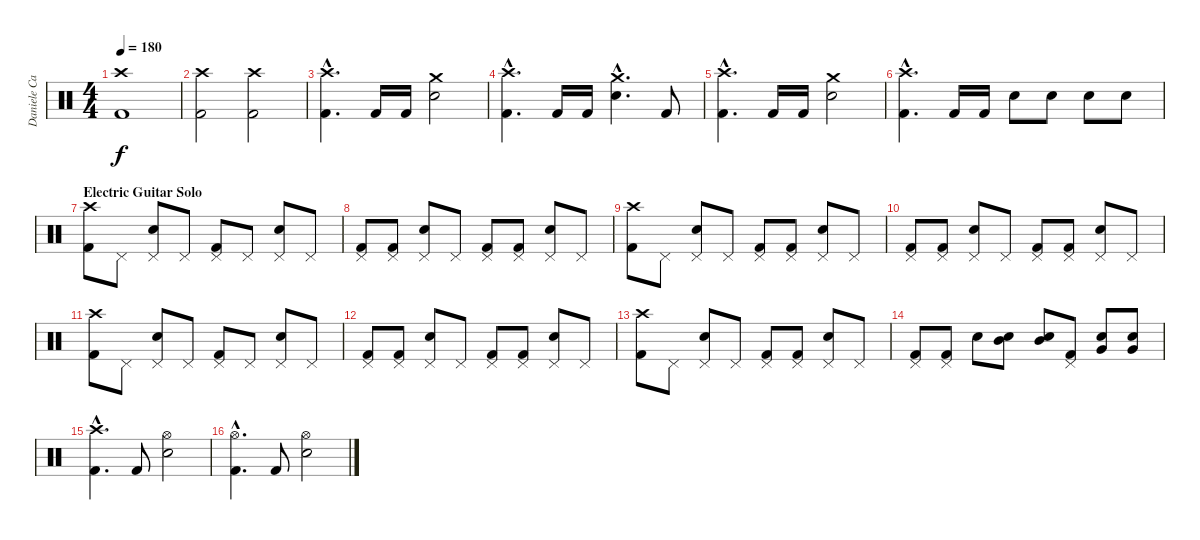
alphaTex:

\track ("Daniele Carbonera " "Daniele Ca") {instrument percussion}
\staff {score}
\articulation defaults
\ts (4 4)
\tempo 180
\clef neutral
\ks c
("Crash high (hit)" "Kick (hit) 2").1{dy f} |
("Crash high (hit)" "Kick (hit) 2").2 ("Crash high (hit)" "Kick (hit) 2").2 |
("Crash high (hit)"{hac} "Kick (hit) 2"{hac}).4{d} "Kick (hit) 2".16 "Kick (hit) 2".16 ("Crash medium (hit)" "Electric Snare (hit)").2 |
("Crash high (hit)"{hac} "Kick (hit) 2"{hac}).4{d} "Kick (hit) 2".16 "Kick (hit) 2".16 ("Crash medium (hit)"{hac} "Electric Snare (hit)"{hac}).4{d} "Kick (hit) 2".8 |
("Crash high (hit)"{hac} "Kick (hit) 2"{hac}).4{d} "Kick (hit) 2".16 "Kick (hit) 2".16 ("Crash medium (hit)" "Electric Snare (hit)").2 |
("Crash high (hit)"{hac} "Kick (hit) 2"{hac}).4{d} "Kick (hit) 2".16 "Kick (hit) 2".16 "Electric Snare (hit)".8 "Electric Snare (hit)".8 "Electric Snare (hit)".8 "Electric Snare (hit)".8 |
\section ("" "Electric Guitar Solo")
("Crash high (hit)" "Kick (hit) 2").8 "Pedal Hi-Hat (hit)".8 ("Pedal Hi-Hat (hit)" "Electric Snare (hit)").8 "Pedal Hi-Hat (hit)".8 ("Pedal Hi-Hat (hit)" "Kick (hit) 2").8 "Pedal Hi-Hat (hit)".8 ("Pedal Hi-Hat (hit)" "Electric Snare (hit)").8 "Pedal Hi-Hat (hit)".8 |
("Pedal Hi-Hat (hit)" "Kick (hit) 2").8 ("Pedal Hi-Hat (hit)" "Kick (hit) 2").8 ("Pedal Hi-Hat (hit)" "Electric Snare (hit)").8 "Pedal Hi-Hat (hit)".8 ("Pedal Hi-Hat (hit)" "Kick (hit) 2").8 ("Pedal Hi-Hat (hit)" "Kick (hit) 2").8 ("Pedal Hi-Hat (hit)" "Electric Snare (hit)").8 "Pedal Hi-Hat (hit)".8 |
("Crash high (hit)" "Kick (hit) 2").8 "Pedal Hi-Hat (hit)".8 ("Pedal Hi-Hat (hit)" "Electric Snare (hit)").8 "Pedal Hi-Hat (hit)".8 ("Pedal Hi-Hat (hit)" "Kick (hit) 2").8 ("Pedal Hi-Hat (hit)" "Kick (hit) 2").8 ("Pedal Hi-Hat (hit)" "Electric Snare (hit)").8 "Pedal Hi-Hat (hit)".8 |
("Pedal Hi-Hat (hit)" "Kick (hit) 2").8 ("Pedal Hi-Hat (hit)" "Kick (hit) 2").8 ("Pedal Hi-Hat (hit)" "Electric Snare (hit)").8 "Pedal Hi-Hat (hit)".8 ("Pedal Hi-Hat (hit)" "Kick (hit) 2").8 ("Pedal Hi-Hat (hit)" "Kick (hit) 2").8 ("Pedal Hi-Hat (hit)" "Electric Snare (hit)").8 "Pedal Hi-Hat (hit)".8 |
("Crash high (hit)" "Kick (hit) 2").8 "Pedal Hi-Hat (hit)".8 ("Pedal Hi-Hat (hit)" "Electric Snare (hit)").8 "Pedal Hi-Hat (hit)".8 ("Pedal Hi-Hat (hit)" "Kick (hit) 2").8 "Pedal Hi-Hat (hit)".8 ("Pedal Hi-Hat (hit)" "Electric Snare (hit)").8 "Pedal Hi-Hat (hit)".8 |
("Pedal Hi-Hat (hit)" "Kick (hit) 2").8 ("Pedal Hi-Hat (hit)" "Kick (hit) 2").8 ("Pedal Hi-Hat (hit)" "Electric Snare (hit)").8 "Pedal Hi-Hat (hit)".8 ("Pedal Hi-Hat (hit)" "Kick (hit) 2").8 ("Pedal Hi-Hat (hit)" "Kick (hit) 2").8 ("Pedal Hi-Hat (hit)" "Electric Snare (hit)").8 "Pedal Hi-Hat (hit)".8 |
("Crash high (hit)" "Kick (hit) 2").8 "Pedal Hi-Hat (hit)".8 ("Pedal Hi-Hat (hit)" "Electric Snare (hit)").8 "Pedal Hi-Hat (hit)".8 ("Pedal Hi-Hat (hit)" "Kick (hit) 2").8 ("Pedal Hi-Hat (hit)" "Kick (hit) 2").8 ("Pedal Hi-Hat (hit)" "Electric Snare (hit)").8 "Pedal Hi-Hat (hit)".8 |
("Pedal Hi-Hat (hit)" "Kick (hit) 2").8 ("Pedal Hi-Hat (hit)" "Kick (hit) 2").8 "Electric Snare (hit)".8 ("Mid Tom (hit)" "Electric Snare (hit)").8 ("Mid Tom (hit)" "Electric Snare (hit)").8 ("Pedal Hi-Hat (hit)" "Kick (hit) 2").8 ("Very Low Tom (hit)" "Electric Snare (hit)").8 ("Very Low Tom (hit)" "Electric Snare (hit)").8 |
("Crash high (hit)"{hac} "Kick (hit) 2"{hac}).4{d} "Kick (hit) 2".8 ("Hi-Hat (open)" "Electric Snare (hit)").2 |
("Hi-Hat (open)"{hac} "Kick (hit) 2"{hac}).4{d} "Kick (hit) 2".8 ("Hi-Hat (open)" "Electric Snare (hit)").2
